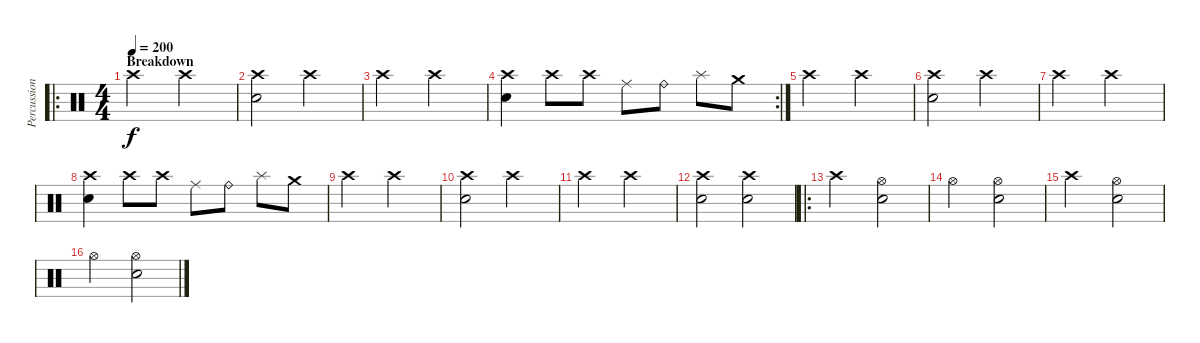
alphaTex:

\track ("Percussion" "Percussion") {instrument percussion}
\staff {score}
\articulation defaults
\ro
\ts (4 4)
\section ("" "Breakdown")
\tempo 200
\clef neutral
\ks c "Crash high (hit)".2{dy f} "Crash high (hit)".2
|
("Crash high (hit)" "Snare (hit) 2").2 "Crash high (hit)".2 |
"Crash high (hit)".2 "Crash high (hit)".2 |
\rc 2
("Crash high (hit)" "Snare (hit) 2").4 "Crash high (hit)".8 "Crash high (hit)".8 "Ride (middle)".8 "Ride (bell)".8 "Splash (hit)".8 "Crash medium (hit)".8 |
"Crash high (hit)".2 "Crash high (hit)".2 |
("Crash high (hit)" "Snare (hit) 2").2 "Crash high (hit)".2 |
"Crash high (hit)".2 "Crash high (hit)".2 |
("Crash high (hit)" "Snare (hit) 2").4 "Crash high (hit)".8 "Crash high (hit)".8 "Ride (middle)".8 "Ride (bell)".8 "Splash (hit)".8 "Crash medium (hit)".8 |
"Crash high (hit)".2 "Crash high (hit)".2 |
("Crash high (hit)" "Snare (hit) 2").2 "Crash high (hit)".2 |
"Crash high (hit)".2 "Crash high (hit)".2 |
("Crash high (hit)" "Snare (hit) 2").2 ("Crash high (hit)" "Snare (hit) 2").2 |
\ro "Crash high (hit)".2
("Hi-Hat (open)" "Snare (hit) 2").2 |
"Hi-Hat (open)".2 ("Hi-Hat (open)" "Snare (hit) 2").2 |
"Crash high (hit)".2 ("Hi-Hat (open)" "Snare (hit) 2").2 |
"Hi-Hat (open)".2 ("Hi-Hat (open)" "Snare (hit) 2").2
